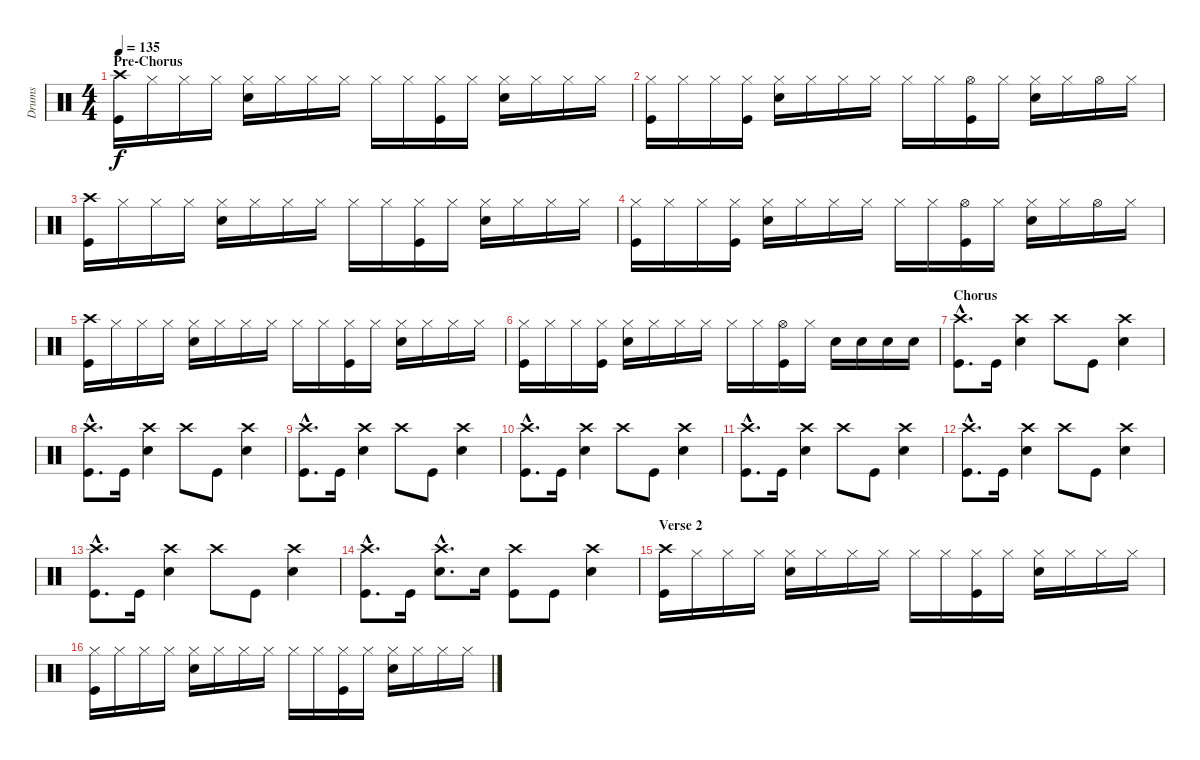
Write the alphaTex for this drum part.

\track ("Drums" "Drums") {instrument percussion}
\staff {score}
\articulation defaults
\ts (4 4)
\section ("" "Pre-Chorus")
\tempo 135
\clef neutral
\ks c
("Crash high (hit)" "Kick (hit)").16{dy f} "Hi-Hat (closed)".16 "Hi-Hat (closed)".16 "Hi-Hat (closed)".16 ("Hi-Hat (closed)" "Electric Snare (hit)").16 "Hi-Hat (closed)".16 "Hi-Hat (closed)".16 "Hi-Hat (closed)".16 "Hi-Hat (closed)".16 "Hi-Hat (closed)".16 ("Hi-Hat (closed)" "Kick (hit)").16 "Hi-Hat (closed)".16 ("Hi-Hat (closed)" "Electric Snare (hit)").16 "Hi-Hat (closed)".16 "Hi-Hat (closed)".16 "Hi-Hat (closed)".16 |
("Hi-Hat (closed)" "Kick (hit)").16 "Hi-Hat (closed)".16 "Hi-Hat (closed)".16 ("Hi-Hat (closed)" "Kick (hit)").16 ("Hi-Hat (closed)" "Electric Snare (hit)").16 "Hi-Hat (closed)".16 "Hi-Hat (closed)".16 "Hi-Hat (closed)".16 "Hi-Hat (closed)".16 "Hi-Hat (closed)".16 ("Hi-Hat (open)" "Kick (hit)").16 "Hi-Hat (closed)".16 ("Hi-Hat (closed)" "Electric Snare (hit)").16 "Hi-Hat (closed)".16 "Hi-Hat (open)".16 "Hi-Hat (closed)".16 |
("Crash high (hit)" "Kick (hit)").16 "Hi-Hat (closed)".16 "Hi-Hat (closed)".16 "Hi-Hat (closed)".16 ("Hi-Hat (closed)" "Electric Snare (hit)").16 "Hi-Hat (closed)".16 "Hi-Hat (closed)".16 "Hi-Hat (closed)".16 "Hi-Hat (closed)".16 "Hi-Hat (closed)".16 ("Hi-Hat (closed)" "Kick (hit)").16 "Hi-Hat (closed)".16 ("Hi-Hat (closed)" "Electric Snare (hit)").16 "Hi-Hat (closed)".16 "Hi-Hat (closed)".16 "Hi-Hat (closed)".16 |
("Hi-Hat (closed)" "Kick (hit)").16 "Hi-Hat (closed)".16 "Hi-Hat (closed)".16 ("Hi-Hat (closed)" "Kick (hit)").16 ("Hi-Hat (closed)" "Electric Snare (hit)").16 "Hi-Hat (closed)".16 "Hi-Hat (closed)".16 "Hi-Hat (closed)".16 "Hi-Hat (closed)".16 "Hi-Hat (closed)".16 ("Hi-Hat (open)" "Kick (hit)").16 "Hi-Hat (closed)".16 ("Hi-Hat (closed)" "Electric Snare (hit)").16 "Hi-Hat (closed)".16 "Hi-Hat (open)".16 "Hi-Hat (closed)".16 |
("Crash high (hit)" "Kick (hit)").16 "Hi-Hat (closed)".16 "Hi-Hat (closed)".16 "Hi-Hat (closed)".16 ("Hi-Hat (closed)" "Electric Snare (hit)").16 "Hi-Hat (closed)".16 "Hi-Hat (closed)".16 "Hi-Hat (closed)".16 "Hi-Hat (closed)".16 "Hi-Hat (closed)".16 ("Hi-Hat (closed)" "Kick (hit)").16 "Hi-Hat (closed)".16 ("Hi-Hat (closed)" "Electric Snare (hit)").16 "Hi-Hat (closed)".16 "Hi-Hat (closed)".16 "Hi-Hat (closed)".16 |
("Hi-Hat (closed)" "Kick (hit)").16 "Hi-Hat (closed)".16 "Hi-Hat (closed)".16 ("Hi-Hat (closed)" "Kick (hit)").16 ("Hi-Hat (closed)" "Electric Snare (hit)").16 "Hi-Hat (closed)".16 "Hi-Hat (closed)".16 "Hi-Hat (closed)".16 "Hi-Hat (closed)".16 "Hi-Hat (closed)".16 ("Hi-Hat (open)" "Kick (hit)").16 "Hi-Hat (closed)".16 "Electric Snare (hit)".16 "Electric Snare (hit)".16 "Electric Snare (hit)".16 "Electric Snare (hit)".16 |
\section ("" "Chorus")
("Crash high (hit)"{hac} "Kick (hit)"{hac}).8{d} "Kick (hit)".16 ("Crash high (hit)" "Electric Snare (hit)").4 "Crash high (hit)".8 "Kick (hit)".8 ("Crash high (hit)" "Electric Snare (hit)").4 |
("Crash high (hit)"{hac} "Kick (hit)"{hac}).8{d} "Kick (hit)".16 ("Crash high (hit)" "Electric Snare (hit)").4 "Crash high (hit)".8 "Kick (hit)".8 ("Crash high (hit)" "Electric Snare (hit)").4 |
("Crash high (hit)"{hac} "Kick (hit)"{hac}).8{d} "Kick (hit)".16 ("Crash high (hit)" "Electric Snare (hit)").4 "Crash high (hit)".8 "Kick (hit)".8 ("Crash high (hit)" "Electric Snare (hit)").4 |
("Crash high (hit)"{hac} "Kick (hit)"{hac}).8{d} "Kick (hit)".16 ("Crash high (hit)" "Electric Snare (hit)").4 "Crash high (hit)".8 "Kick (hit)".8 ("Crash high (hit)" "Electric Snare (hit)").4 |
("Crash high (hit)"{hac} "Kick (hit)"{hac}).8{d} "Kick (hit)".16 ("Crash high (hit)" "Electric Snare (hit)").4 "Crash high (hit)".8 "Kick (hit)".8 ("Crash high (hit)" "Electric Snare (hit)").4 |
("Crash high (hit)"{hac} "Kick (hit)"{hac}).8{d} "Kick (hit)".16 ("Crash high (hit)" "Electric Snare (hit)").4 "Crash high (hit)".8 "Kick (hit)".8 ("Crash high (hit)" "Electric Snare (hit)").4 |
("Crash high (hit)"{hac} "Kick (hit)"{hac}).8{d} "Kick (hit)".16 ("Crash high (hit)" "Electric Snare (hit)").4 "Crash high (hit)".8 "Kick (hit)".8 ("Crash high (hit)" "Electric Snare (hit)").4 |
("Crash high (hit)"{hac} "Kick (hit)"{hac}).8{d} "Kick (hit)".16 ("Crash high (hit)"{hac} "Electric Snare (hit)"{hac}).8{d} "Electric Snare (hit)".16 ("Crash high (hit)" "Kick (hit)").8 "Kick (hit)".8 ("Crash high (hit)" "Electric Snare (hit)").4 |
\section ("" "Verse 2")
("Crash high (hit)" "Kick (hit)").16 "Hi-Hat (closed)".16 "Hi-Hat (closed)".16 "Hi-Hat (closed)".16 ("Hi-Hat (closed)" "Electric Snare (hit)").16 "Hi-Hat (closed)".16 "Hi-Hat (closed)".16 "Hi-Hat (closed)".16 "Hi-Hat (closed)".16 "Hi-Hat (closed)".16 ("Hi-Hat (closed)" "Kick (hit)").16 "Hi-Hat (closed)".16 ("Hi-Hat (closed)" "Electric Snare (hit)").16 "Hi-Hat (closed)".16 "Hi-Hat (closed)".16 "Hi-Hat (closed)".16 |
("Hi-Hat (closed)" "Kick (hit)").16 "Hi-Hat (closed)".16 "Hi-Hat (closed)".16 "Hi-Hat (closed)".16 ("Hi-Hat (closed)" "Electric Snare (hit)").16 "Hi-Hat (closed)".16 "Hi-Hat (closed)".16 "Hi-Hat (closed)".16 "Hi-Hat (closed)".16 "Hi-Hat (closed)".16 ("Hi-Hat (closed)" "Kick (hit)").16 "Hi-Hat (closed)".16 ("Hi-Hat (closed)" "Electric Snare (hit)").16 "Hi-Hat (closed)".16 "Hi-Hat (closed)".16 "Hi-Hat (closed)".16
